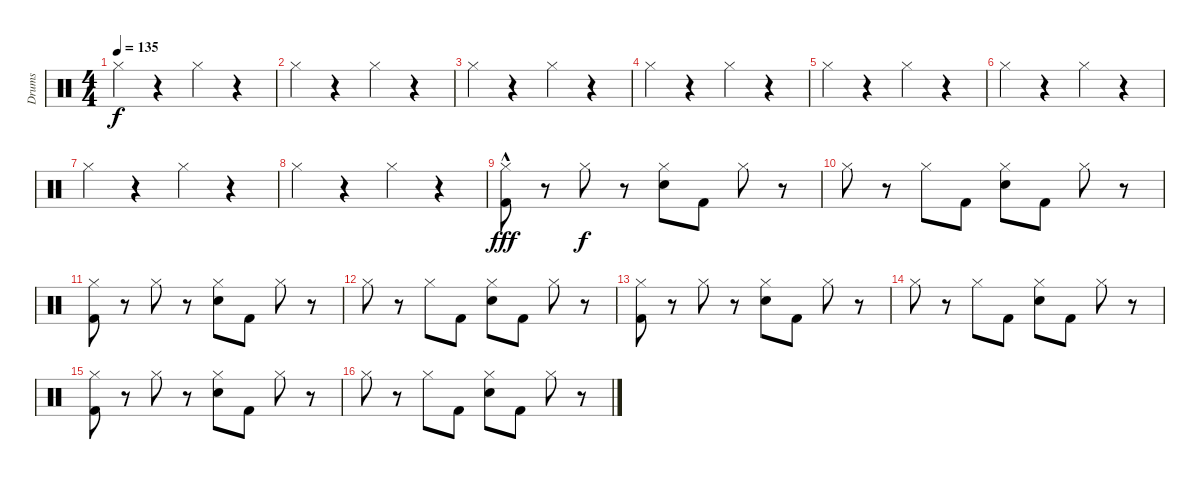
\track ("Drums" "Drums") {instrument percussion}
\staff {score}
\articulation defaults
\ts (4 4)
\tempo 135
\clef neutral
\ks c "Hi-Hat (closed)".4{dy f volume 7}
r.4 "Hi-Hat (closed)".4 r.4 |
"Hi-Hat (closed)".4 r.4 "Hi-Hat (closed)".4 r.4 |
"Hi-Hat (closed)".4 r.4 "Hi-Hat (closed)".4 r.4 |
"Hi-Hat (closed)".4 r.4 "Hi-Hat (closed)".4 r.4 |
"Hi-Hat (closed)".4 r.4 "Hi-Hat (closed)".4 r.4 |
"Hi-Hat (closed)".4 r.4 "Hi-Hat (closed)".4 r.4 |
"Hi-Hat (closed)".4 r.4 "Hi-Hat (closed)".4 r.4 |
"Hi-Hat (closed)".4 r.4 "Hi-Hat (closed)".4 r.4 |
("Kick (hit) 2"{hac} "Hi-Hat (closed)").8{dy fff volume 11} r.8 "Hi-Hat (closed)".8{dy f} r.8 ("Snare (hit) 2" "Hi-Hat (closed)").8 "Kick (hit) 2".8 "Hi-Hat (closed)".8 r.8 |
"Hi-Hat (closed)".8 r.8 "Hi-Hat (closed)".8 "Kick (hit) 2".8 ("Snare (hit) 2" "Hi-Hat (closed)").8 "Kick (hit) 2".8 "Hi-Hat (closed)".8 r.8 |
("Kick (hit) 2" "Hi-Hat (closed)").8 r.8 "Hi-Hat (closed)".8 r.8 ("Snare (hit) 2" "Hi-Hat (closed)").8 "Kick (hit) 2".8 "Hi-Hat (closed)".8 r.8 |
"Hi-Hat (closed)".8 r.8 "Hi-Hat (closed)".8 "Kick (hit) 2".8 ("Snare (hit) 2" "Hi-Hat (closed)").8 "Kick (hit) 2".8 "Hi-Hat (closed)".8 r.8 |
("Kick (hit) 2" "Hi-Hat (closed)").8 r.8 "Hi-Hat (closed)".8 r.8 ("Snare (hit) 2" "Hi-Hat (closed)").8 "Kick (hit) 2".8 "Hi-Hat (closed)".8 r.8 |
"Hi-Hat (closed)".8 r.8 "Hi-Hat (closed)".8 "Kick (hit) 2".8 ("Snare (hit) 2" "Hi-Hat (closed)").8 "Kick (hit) 2".8 "Hi-Hat (closed)".8 r.8 |
("Kick (hit) 2" "Hi-Hat (closed)").8 r.8 "Hi-Hat (closed)".8 r.8 ("Snare (hit) 2" "Hi-Hat (closed)").8 "Kick (hit) 2".8 "Hi-Hat (closed)".8 r.8 |
"Hi-Hat (closed)".8 r.8 "Hi-Hat (closed)".8 "Kick (hit) 2".8 ("Snare (hit) 2" "Hi-Hat (closed)").8 "Kick (hit) 2".8 "Hi-Hat (closed)".8 r.8
